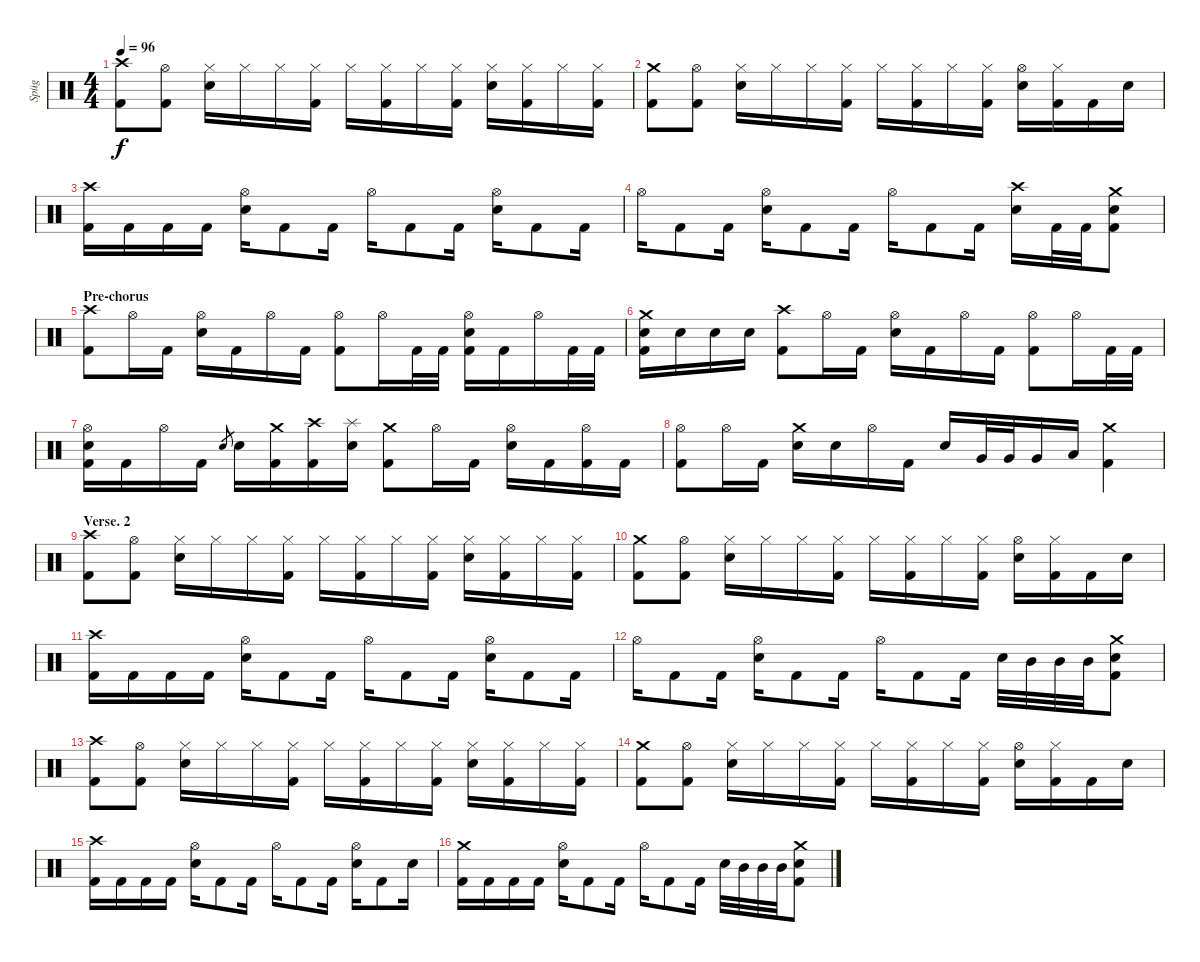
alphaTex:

\track ("Spüg" "Spüg") {instrument percussion}
\staff {score}
\articulation defaults
\ts (4 4)
\tempo 96
\clef neutral
\ks c
("Crash high (hit)" "Kick (hit) 2").8{dy f} ("Hi-Hat (open)" "Kick (hit) 2").8 ("Hi-Hat (closed)" "Electric Snare (hit)").16 "Hi-Hat (closed)".16 "Hi-Hat (closed)".16 ("Hi-Hat (closed)" "Kick (hit) 2").16 "Hi-Hat (closed)".16 ("Hi-Hat (closed)" "Kick (hit) 2").16 "Hi-Hat (closed)".16 ("Hi-Hat (closed)" "Kick (hit) 2").16 ("Hi-Hat (closed)" "Electric Snare (hit)").16 ("Hi-Hat (closed)" "Kick (hit) 2").16 "Hi-Hat (closed)".16 ("Hi-Hat (closed)" "Kick (hit) 2").16 |
("Crash medium (hit)" "Kick (hit) 2").8 ("Hi-Hat (open)" "Kick (hit) 2").8 ("Hi-Hat (closed)" "Electric Snare (hit)").16 "Hi-Hat (closed)".16 "Hi-Hat (closed)".16 ("Hi-Hat (closed)" "Kick (hit) 2").16 "Hi-Hat (closed)".16 ("Hi-Hat (closed)" "Kick (hit) 2").16 "Hi-Hat (closed)".16 ("Hi-Hat (closed)" "Kick (hit) 2").16 ("Hi-Hat (open)" "Electric Snare (hit)").16 ("Hi-Hat (closed)" "Kick (hit) 2").16 "Kick (hit) 2".16 "Electric Snare (hit)".16 |
("Crash high (hit)" "Kick (hit) 2").16 "Kick (hit) 2".16 "Kick (hit) 2".16 "Kick (hit) 2".16 ("Hi-Hat (open)" "Electric Snare (hit)").16 "Kick (hit) 2".8 "Kick (hit) 2".16 "Hi-Hat (open)".16 "Kick (hit) 2".8 "Kick (hit) 2".16 ("Hi-Hat (open)" "Electric Snare (hit)").16 "Kick (hit) 2".8 "Kick (hit) 2".16 |
"Hi-Hat (open)".16 "Kick (hit) 2".8 "Kick (hit) 2".16 ("Hi-Hat (open)" "Electric Snare (hit)").16 "Kick (hit) 2".8 "Kick (hit) 2".16 "Hi-Hat (open)".16 "Kick (hit) 2".8 "Kick (hit) 2".16 ("Crash high (hit)" "Electric Snare (hit)").16 "Kick (hit) 2".32 "Kick (hit) 2".32 ("Crash medium (hit)" "Electric Snare (hit)" "Kick (hit) 2").8 |
\section ("" "Pre-chorus")
("Crash high (hit)" "Kick (hit) 2").8 "Hi-Hat (open)".16 "Kick (hit) 2".16 ("Hi-Hat (open)" "Electric Snare (hit)").16 "Kick (hit) 2".16 "Hi-Hat (open)".16 "Kick (hit) 2".16 ("Hi-Hat (open)" "Kick (hit) 2").8 "Hi-Hat (open)".16 "Kick (hit) 2".32 "Kick (hit) 2".32 ("Hi-Hat (open)" "Electric Snare (hit)" "Kick (hit) 2").16 "Kick (hit) 2".16 "Hi-Hat (open)".16 "Kick (hit) 2".32 "Kick (hit) 2".32 |
("Crash medium (hit)" "Electric Snare (hit)" "Kick (hit) 2").16 "Electric Snare (hit)".16 "Electric Snare (hit)".16 "Electric Snare (hit)".16 ("Crash high (hit)" "Kick (hit) 2").8 "Hi-Hat (open)".16 "Kick (hit) 2".16 ("Hi-Hat (open)" "Electric Snare (hit)").16 "Kick (hit) 2".16 "Hi-Hat (open)".16 "Kick (hit) 2".16 ("Hi-Hat (open)" "Kick (hit) 2").8 "Hi-Hat (open)".16 "Kick (hit) 2".32 "Kick (hit) 2".32 |
("Hi-Hat (open)" "Electric Snare (hit)" "Kick (hit) 2").16 "Kick (hit) 2".16 "Hi-Hat (open)".16 "Kick (hit) 2".16 "Electric Snare (hit)".8{gr} "Electric Snare (hit)".16 ("Crash medium (hit)" "Kick (hit) 2").16 ("Crash high (hit)" "Kick (hit) 2").16 ("Splash (hit)" "Electric Snare (hit)").16 ("Crash medium (hit)" "Kick (hit) 2").8 "Hi-Hat (open)".16 "Kick (hit) 2".16 ("Hi-Hat (open)" "Electric Snare (hit)").16 "Kick (hit) 2".16 ("Hi-Hat (open)" "Kick (hit) 2").16 "Kick (hit) 2".16 |
("Hi-Hat (open)" "Kick (hit) 2").8 "Hi-Hat (open)".16 "Kick (hit) 2".16 ("Crash medium (hit)" "Electric Snare (hit)").16 "Electric Snare (hit)".16 "Hi-Hat (open)".16 "Kick (hit) 2".16 "Electric Snare (hit)".16 "Very Low Tom (hit)".32 "Very Low Tom (hit)".32 "Very Low Tom (hit)".16 "Low Tom (hit)".16 ("Crash medium (hit)" "Kick (hit) 2").4 |
\section ("" "Verse. 2")
("Crash high (hit)" "Kick (hit) 2").8 ("Hi-Hat (open)" "Kick (hit) 2").8 ("Hi-Hat (closed)" "Electric Snare (hit)").16 "Hi-Hat (closed)".16 "Hi-Hat (closed)".16 ("Hi-Hat (closed)" "Kick (hit) 2").16 "Hi-Hat (closed)".16 ("Hi-Hat (closed)" "Kick (hit) 2").16 "Hi-Hat (closed)".16 ("Hi-Hat (closed)" "Kick (hit) 2").16 ("Hi-Hat (closed)" "Electric Snare (hit)").16 ("Hi-Hat (closed)" "Kick (hit) 2").16 "Hi-Hat (closed)".16 ("Hi-Hat (closed)" "Kick (hit) 2").16 |
("Crash medium (hit)" "Kick (hit) 2").8 ("Hi-Hat (open)" "Kick (hit) 2").8 ("Hi-Hat (closed)" "Electric Snare (hit)").16 "Hi-Hat (closed)".16 "Hi-Hat (closed)".16 ("Hi-Hat (closed)" "Kick (hit) 2").16 "Hi-Hat (closed)".16 ("Hi-Hat (closed)" "Kick (hit) 2").16 "Hi-Hat (closed)".16 ("Hi-Hat (closed)" "Kick (hit) 2").16 ("Hi-Hat (open)" "Electric Snare (hit)").16 ("Hi-Hat (closed)" "Kick (hit) 2").16 "Kick (hit) 2".16 "Electric Snare (hit)".16 |
("Crash high (hit)" "Kick (hit) 2").16 "Kick (hit) 2".16 "Kick (hit) 2".16 "Kick (hit) 2".16 ("Hi-Hat (open)" "Electric Snare (hit)").16 "Kick (hit) 2".8 "Kick (hit) 2".16 "Hi-Hat (open)".16 "Kick (hit) 2".8 "Kick (hit) 2".16 ("Hi-Hat (open)" "Electric Snare (hit)").16 "Kick (hit) 2".8 "Kick (hit) 2".16 |
"Hi-Hat (open)".16 "Kick (hit) 2".8 "Kick (hit) 2".16 ("Hi-Hat (open)" "Electric Snare (hit)").16 "Kick (hit) 2".8 "Kick (hit) 2".16 "Hi-Hat (open)".16 "Kick (hit) 2".8 "Kick (hit) 2".16 "Electric Snare (hit)".32 "Mid Tom (hit)".32 "Mid Tom (hit)".32 "Mid Tom (hit)".32 ("Crash medium (hit)" "Electric Snare (hit)" "Kick (hit) 2").8 |
("Crash high (hit)" "Kick (hit) 2").8 ("Hi-Hat (open)" "Kick (hit) 2").8 ("Hi-Hat (closed)" "Electric Snare (hit)").16 "Hi-Hat (closed)".16 "Hi-Hat (closed)".16 ("Hi-Hat (closed)" "Kick (hit) 2").16 "Hi-Hat (closed)".16 ("Hi-Hat (closed)" "Kick (hit) 2").16 "Hi-Hat (closed)".16 ("Hi-Hat (closed)" "Kick (hit) 2").16 ("Hi-Hat (closed)" "Electric Snare (hit)").16 ("Hi-Hat (closed)" "Kick (hit) 2").16 "Hi-Hat (closed)".16 ("Hi-Hat (closed)" "Kick (hit) 2").16 |
("Crash medium (hit)" "Kick (hit) 2").8 ("Hi-Hat (open)" "Kick (hit) 2").8 ("Hi-Hat (closed)" "Electric Snare (hit)").16 "Hi-Hat (closed)".16 "Hi-Hat (closed)".16 ("Hi-Hat (closed)" "Kick (hit) 2").16 "Hi-Hat (closed)".16 ("Hi-Hat (closed)" "Kick (hit) 2").16 "Hi-Hat (closed)".16 ("Hi-Hat (closed)" "Kick (hit) 2").16 ("Hi-Hat (open)" "Electric Snare (hit)").16 ("Hi-Hat (closed)" "Kick (hit) 2").16 "Kick (hit) 2".16 "Electric Snare (hit)".16 |
("Crash high (hit)" "Kick (hit) 2").16 "Kick (hit) 2".16 "Kick (hit) 2".16 "Kick (hit) 2".16 ("Hi-Hat (open)" "Electric Snare (hit)").16 "Kick (hit) 2".8 "Kick (hit) 2".16 "Hi-Hat (open)".16 "Kick (hit) 2".8 "Kick (hit) 2".16 ("Hi-Hat (open)" "Electric Snare (hit)").16 "Kick (hit) 2".8 "Electric Snare (hit)".16 |
("Crash medium (hit)" "Kick (hit) 2").16 "Kick (hit) 2".16 "Kick (hit) 2".16 "Kick (hit) 2".16 ("Hi-Hat (open)" "Electric Snare (hit)").16 "Kick (hit) 2".8 "Kick (hit) 2".16 "Hi-Hat (open)".16 "Kick (hit) 2".8 "Kick (hit) 2".16 "Electric Snare (hit)".32 "Mid Tom (hit)".32 "Mid Tom (hit)".32 "Mid Tom (hit)".32 ("Crash medium (hit)" "Electric Snare (hit)" "Kick (hit) 2").8
